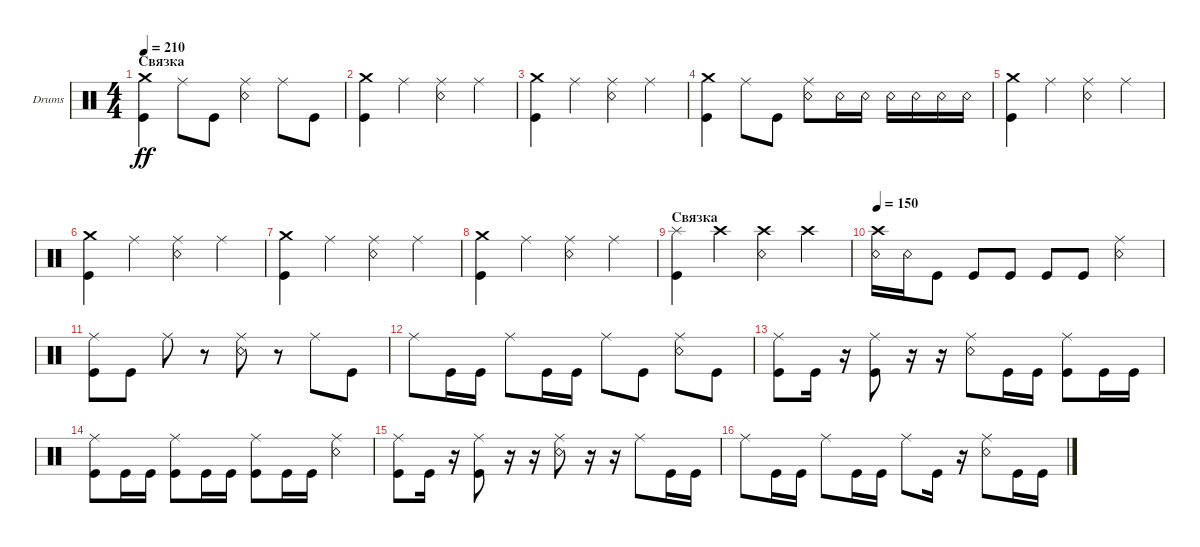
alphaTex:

\defaultSystemsLayout 4
\bracketExtendMode groupsimilarinstruments
\firstSystemTrackNameOrientation horizontal
\otherSystemsTrackNameOrientation horizontal
\track ("Drumkit" "Drums") {instrument percussion}
\staff {score}
\articulation defaults
\ts (4 4)
\section ("" "Связка")
\tempo 210
\clef neutral
\ks c
("Kick (hit)" "Crash medium (hit)").4{dy ff} "Ride (middle)".8 "Kick (hit)".8 ("Snare (rim shot)" "Ride (middle)").4 "Ride (middle)".8 "Kick (hit)".8 |
("Kick (hit)" "Crash medium (hit)").4 "Ride (middle)".4 ("Snare (rim shot)" "Ride (middle)").4 "Ride (middle)".4 |
("Kick (hit)" "Crash medium (hit)").4 "Ride (middle)".4 ("Snare (rim shot)" "Ride (middle)").4 "Ride (middle)".4 |
("Kick (hit)" "Crash medium (hit)").4 "Ride (middle)".8 "Kick (hit)".8 ("Snare (rim shot)" "Ride (middle)").8 "Snare (rim shot)".16 "Snare (rim shot)".16 "Snare (rim shot)".16 "Snare (rim shot)".16 "Snare (rim shot)".16 "Snare (rim shot)".16 |
("Kick (hit)" "Crash medium (hit)").4 "Ride (middle)".4 ("Snare (rim shot)" "Ride (middle)").4 "Ride (middle)".4 |
("Kick (hit)" "Crash medium (hit)").4 "Ride (middle)".4 ("Snare (rim shot)" "Ride (middle)").4 "Ride (middle)".4 |
("Kick (hit)" "Crash medium (hit)").4 "Ride (middle)".4 ("Snare (rim shot)" "Ride (middle)").4 "Ride (middle)".4 |
("Kick (hit)" "Crash medium (hit)").4 "Ride (middle)".4 ("Snare (rim shot)" "Ride (middle)").4 "Ride (middle)".4 |
\section ("" "Связка")
("Kick (hit)" "Splash (hit)").4 "Crash high (hit)".4 ("Crash high (hit)" "Snare (rim shot)").4 "Crash high (hit)".4 |
\tempo 150
("Snare (rim shot)" "Crash high (hit)").16 "Snare (rim shot)".16 "Kick (hit)".8 "Kick (hit)".8 "Kick (hit)".8 "Kick (hit)".8 "Kick (hit)".8 ("Snare (rim shot)" "Ride (middle)").4 |
("Kick (hit)" "Ride (middle)").8 "Kick (hit)".8 "Ride (middle)".8 r.8 ("Snare (rim shot)" "Ride (middle)").8 r.8 "Ride (middle)".8 "Kick (hit)".8 |
"Ride (middle)".8 "Kick (hit)".16 "Kick (hit)".16 "Ride (middle)".8 "Kick (hit)".16 "Kick (hit)".16 "Ride (middle)".8 "Kick (hit)".8 ("Ride (middle)" "Snare (rim shot)").8 "Kick (hit)".8 |
("Ride (middle)" "Kick (hit)").8 "Kick (hit)".16 r.16 ("Ride (middle)" "Kick (hit)").8 r.16 r.16 ("Ride (middle)" "Snare (rim shot)").8 "Kick (hit)".16 "Kick (hit)".16 ("Kick (hit)" "Ride (middle)").8 "Kick (hit)".16 "Kick (hit)".16 |
("Kick (hit)" "Ride (middle)").8 "Kick (hit)".16 "Kick (hit)".16 ("Kick (hit)" "Ride (middle)").8 "Kick (hit)".16 "Kick (hit)".16 ("Kick (hit)" "Ride (middle)").8 "Kick (hit)".16 "Kick (hit)".16 ("Snare (rim shot)" "Ride (middle)").4 |
("Ride (middle)" "Kick (hit)").8 "Kick (hit)".16 r.16 ("Ride (middle)" "Kick (hit)").8 r.16 r.16 ("Ride (middle)" "Snare (rim shot)").8 r.16 r.16 "Ride (middle)".8 "Kick (hit)".16 "Kick (hit)".16 |
"Ride (middle)".8 "Kick (hit)".16 "Kick (hit)".16 "Ride (middle)".8 "Kick (hit)".16 "Kick (hit)".16 "Ride (middle)".8 "Kick (hit)".16 r.16 ("Snare (rim shot)" "Ride (middle)").8 "Kick (hit)".16 "Kick (hit)".16
